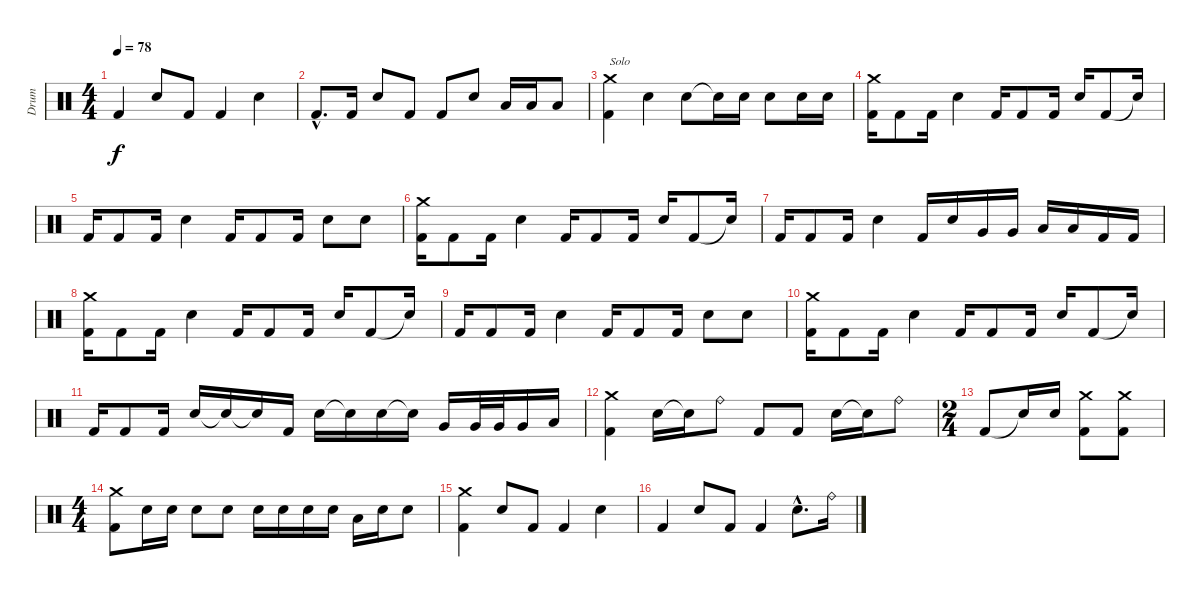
\track ("Drum" "Drum") {instrument percussion}
\staff {score}
\articulation defaults
\ts (4 4)
\tempo 78
\clef neutral
\ks c "Kick (hit) 2".4{dy f} "Electric Snare (hit)".8 "Kick (hit) 2".8 "Kick (hit) 2".4 "Electric Snare (hit)".4
|
"Kick (hit) 2"{hac}.8{d} "Kick (hit) 2".16 "Electric Snare (hit)".8 "Kick (hit) 2".8 "Kick (hit) 2".8 "Electric Snare (hit)".8 "Low Floor Tom (hit)".16 "Low Floor Tom (hit)".16 "Low Floor Tom (hit)".8 |
("Crash medium (hit)" "Kick (hit) 2").4{txt "Solo"} "Electric Snare (hit)".4 "Electric Snare (hit)".8 "Snare (hit)"{t}.16 "Electric Snare (hit)".16 "Electric Snare (hit)".8 "Electric Snare (hit)".16 "Electric Snare (hit)".16 |
("Crash medium (hit)" "Kick (hit) 2").16 "Kick (hit) 2".8 "Kick (hit) 2".16 "Electric Snare (hit)".4 "Kick (hit) 2".16 "Kick (hit) 2".8 "Kick (hit) 2".16 "Electric Snare (hit)".16 "Kick (hit) 2".8 "Snare (hit)"{t}.16 |
"Kick (hit) 2".16 "Kick (hit) 2".8 "Kick (hit) 2".16 "Electric Snare (hit)".4 "Kick (hit) 2".16 "Kick (hit) 2".8 "Kick (hit) 2".16 "Electric Snare (hit)".8 "Electric Snare (hit)".8 |
("Crash medium (hit)" "Kick (hit) 2").16 "Kick (hit) 2".8 "Kick (hit) 2".16 "Electric Snare (hit)".4 "Kick (hit) 2".16 "Kick (hit) 2".8 "Kick (hit) 2".16 "Electric Snare (hit)".16 "Kick (hit) 2".8 "Snare (hit)"{t}.16 |
"Kick (hit) 2".16 "Kick (hit) 2".8 "Kick (hit) 2".16 "Electric Snare (hit)".4 "Kick (hit) 2".16 "Electric Snare (hit)".16 "Very Low Tom (hit)".16 "Very Low Tom (hit)".16 "Low Floor Tom (hit)".16 "Low Floor Tom (hit)".16 "Kick (hit) 2".16 "Kick (hit) 2".16 |
("Crash medium (hit)" "Kick (hit) 2").16 "Kick (hit) 2".8 "Kick (hit) 2".16 "Electric Snare (hit)".4 "Kick (hit) 2".16 "Kick (hit) 2".8 "Kick (hit) 2".16 "Electric Snare (hit)".16 "Kick (hit) 2".8 "Snare (hit)"{t}.16 |
"Kick (hit) 2".16 "Kick (hit) 2".8 "Kick (hit) 2".16 "Electric Snare (hit)".4 "Kick (hit) 2".16 "Kick (hit) 2".8 "Kick (hit) 2".16 "Electric Snare (hit)".8 "Electric Snare (hit)".8 |
("Crash medium (hit)" "Kick (hit) 2").16 "Kick (hit) 2".8 "Kick (hit) 2".16 "Electric Snare (hit)".4 "Kick (hit) 2".16 "Kick (hit) 2".8 "Kick (hit) 2".16 "Electric Snare (hit)".16 "Kick (hit) 2".8 "Snare (hit)"{t}.16 |
"Kick (hit) 2".16 "Kick (hit) 2".8 "Kick (hit) 2".16 "Electric Snare (hit)".16 "Snare (hit)"{t}.16 "Snare (hit)"{t}.16 "Kick (hit) 2".16 "Electric Snare (hit)".16 "Snare (hit)"{t}.16 "Electric Snare (hit)".16 "Snare (hit)"{t}.16 "Very Low Tom (hit)".16 "Very Low Tom (hit)".32 "Very Low Tom (hit)".32 "Very Low Tom (hit)".16 "Low Floor Tom (hit)".16 |
("Crash medium (hit)" "Kick (hit) 2").4 "Electric Snare (hit)".16 "Snare (hit)"{t}.16 "Ride (bell)".8 "Kick (hit) 2".8 "Kick (hit) 2".8 "Electric Snare (hit)".16 "Snare (hit)"{t}.16 "Ride (bell)".8 |
\ts (2 4)
"Kick (hit) 2".8 "Snare (hit)"{t}.16 "Electric Snare (hit)".16 ("Crash medium (hit)" "Kick (hit) 2").8 ("Crash medium (hit)" "Kick (hit) 2").8 |
\ts (4 4)
("Crash medium (hit)" "Kick (hit) 2").8 "Electric Snare (hit)".16 "Electric Snare (hit)".16 "Electric Snare (hit)".8 "Electric Snare (hit)".8 "Electric Snare (hit)".16 "Electric Snare (hit)".16 "Electric Snare (hit)".16 "Electric Snare (hit)".16 "Low Floor Tom (hit)".16 "Electric Snare (hit)".16 "Electric Snare (hit)".8 |
("Crash medium (hit)" "Kick (hit) 2").4 "Electric Snare (hit)".8 "Kick (hit) 2".8 "Kick (hit) 2".4 "Electric Snare (hit)".4 |
"Kick (hit) 2".4 "Electric Snare (hit)".8 "Kick (hit) 2".8 "Kick (hit) 2".4 "Electric Snare (hit)"{hac}.8{d} "Ride (bell)".16
